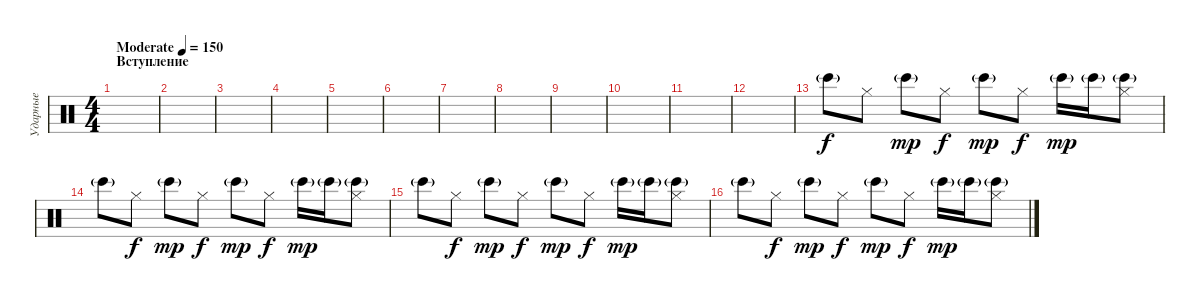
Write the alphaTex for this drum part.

\track ("Ударные" "Ударные") {instrument percussion}
\staff {score}
\articulation defaults
\ts (4 4)
\section ("" "Вступление")
\tempo (150 "Moderate")
\clef neutral
\ks c
|
|
|
|
|
|
|
|
|
|
|
|
"Bongo High (hit)"{g}.8 "Hi-Hat (closed)".8{dy f} "Bongo High (hit)"{g}.8{dy mp} "Hi-Hat (closed)".8{dy f} "Bongo High (hit)"{g}.8{dy mp} "Hi-Hat (closed)".8{dy f} "Bongo High (hit)"{g}.16{dy mp} "Bongo High (hit)"{g}.16 ("Hi-Hat (closed)" "Bongo High (hit)"{g}).8 |
"Bongo High (hit)"{g}.8 "Hi-Hat (closed)".8{dy f} "Bongo High (hit)"{g}.8{dy mp} "Hi-Hat (closed)".8{dy f} "Bongo High (hit)"{g}.8{dy mp} "Hi-Hat (closed)".8{dy f} "Bongo High (hit)"{g}.16{dy mp} "Bongo High (hit)"{g}.16 ("Hi-Hat (closed)" "Bongo High (hit)"{g}).8 |
"Bongo High (hit)"{g}.8 "Hi-Hat (closed)".8{dy f} "Bongo High (hit)"{g}.8{dy mp} "Hi-Hat (closed)".8{dy f} "Bongo High (hit)"{g}.8{dy mp} "Hi-Hat (closed)".8{dy f} "Bongo High (hit)"{g}.16{dy mp} "Bongo High (hit)"{g}.16 ("Hi-Hat (closed)" "Bongo High (hit)"{g}).8 |
"Bongo High (hit)"{g}.8 "Hi-Hat (closed)".8{dy f} "Bongo High (hit)"{g}.8{dy mp} "Hi-Hat (closed)".8{dy f} "Bongo High (hit)"{g}.8{dy mp} "Hi-Hat (closed)".8{dy f} "Bongo High (hit)"{g}.16{dy mp} "Bongo High (hit)"{g}.16 ("Hi-Hat (closed)" "Bongo High (hit)"{g}).8
